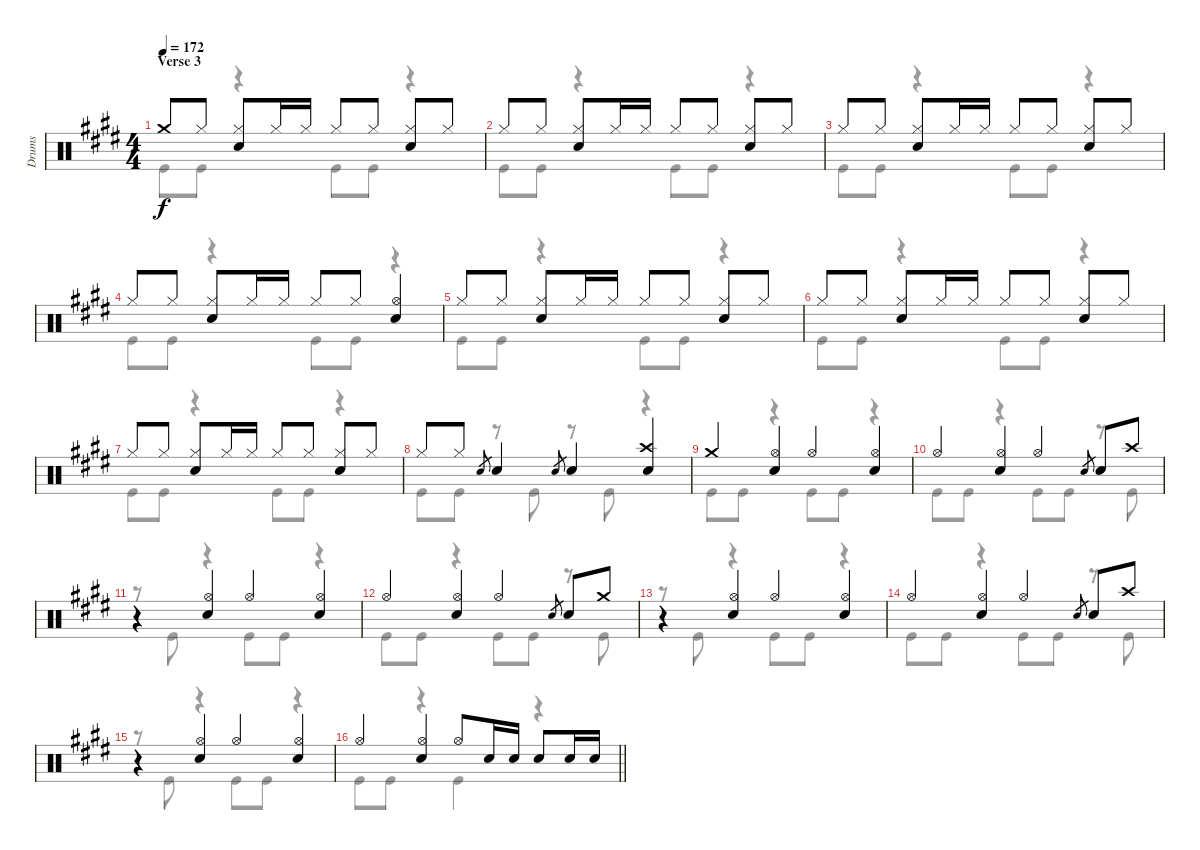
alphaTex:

\track ("Drums" "Drums") {instrument percussion}
\staff {score}
\articulation defaults
\voice
\ts (4 4)
\section ("" "Verse 3")
\tempo 172
\clef neutral
\ks e "Crash medium (hit)".8{dy f} "Hi-Hat (closed)".8
("Hi-Hat (closed)" "Electric Snare (hit)").8 "Hi-Hat (closed)".16 "Hi-Hat (closed)".16 "Hi-Hat (closed)".8 "Hi-Hat (closed)".8 ("Hi-Hat (closed)" "Electric Snare (hit)").8 "Hi-Hat (closed)".8 |
"Hi-Hat (closed)".8 "Hi-Hat (closed)".8 ("Hi-Hat (closed)" "Electric Snare (hit)").8 "Hi-Hat (closed)".16 "Hi-Hat (closed)".16 "Hi-Hat (closed)".8 "Hi-Hat (closed)".8 ("Hi-Hat (closed)" "Electric Snare (hit)").8 "Hi-Hat (closed)".8 |
"Hi-Hat (closed)".8 "Hi-Hat (closed)".8 ("Hi-Hat (closed)" "Electric Snare (hit)").8 "Hi-Hat (closed)".16 "Hi-Hat (closed)".16 "Hi-Hat (closed)".8 "Hi-Hat (closed)".8 ("Hi-Hat (closed)" "Electric Snare (hit)").8 "Hi-Hat (closed)".8 |
"Hi-Hat (closed)".8 "Hi-Hat (closed)".8 ("Hi-Hat (closed)" "Electric Snare (hit)").8 "Hi-Hat (closed)".16 "Hi-Hat (closed)".16 "Hi-Hat (closed)".8 "Hi-Hat (closed)".8 ("Hi-Hat (open)" "Electric Snare (hit)").4 |
"Hi-Hat (closed)".8 "Hi-Hat (closed)".8 ("Hi-Hat (closed)" "Electric Snare (hit)").8 "Hi-Hat (closed)".16 "Hi-Hat (closed)".16 "Hi-Hat (closed)".8 "Hi-Hat (closed)".8 ("Hi-Hat (closed)" "Electric Snare (hit)").8 "Hi-Hat (closed)".8 |
"Hi-Hat (closed)".8 "Hi-Hat (closed)".8 ("Hi-Hat (closed)" "Electric Snare (hit)").8 "Hi-Hat (closed)".16 "Hi-Hat (closed)".16 "Hi-Hat (closed)".8 "Hi-Hat (closed)".8 ("Hi-Hat (closed)" "Electric Snare (hit)").8 "Hi-Hat (closed)".8 |
"Hi-Hat (closed)".8 "Hi-Hat (closed)".8 ("Hi-Hat (closed)" "Electric Snare (hit)").8 "Hi-Hat (closed)".16 "Hi-Hat (closed)".16 "Hi-Hat (closed)".8 "Hi-Hat (closed)".8 ("Hi-Hat (closed)" "Electric Snare (hit)").8 "Hi-Hat (closed)".8 |
"Hi-Hat (closed)".8 "Hi-Hat (closed)".8 "Electric Snare (hit)".8{gr} "Electric Snare (hit)".4 "Electric Snare (hit)".8{gr} "Electric Snare (hit)".4 ("Crash high (hit)" "Electric Snare (hit)").4 |
"Crash medium (hit)".4 ("Hi-Hat (open)" "Electric Snare (hit)").4 "Hi-Hat (open)".4 ("Hi-Hat (open)" "Electric Snare (hit)").4 |
"Hi-Hat (open)".4 ("Hi-Hat (open)" "Electric Snare (hit)").4 "Hi-Hat (open)".4 "Electric Snare (hit)".8{gr} "Electric Snare (hit)".8 "Crash high (hit)".8 |
r.4 ("Hi-Hat (open)" "Electric Snare (hit)").4 "Hi-Hat (open)".4 ("Hi-Hat (open)" "Electric Snare (hit)").4 |
"Hi-Hat (open)".4 ("Hi-Hat (open)" "Electric Snare (hit)").4 "Hi-Hat (open)".4 "Electric Snare (hit)".8{gr} "Electric Snare (hit)".8 "Crash medium (hit)".8 |
r.4 ("Hi-Hat (open)" "Electric Snare (hit)").4 "Hi-Hat (open)".4 ("Hi-Hat (open)" "Electric Snare (hit)").4 |
"Hi-Hat (open)".4 ("Hi-Hat (open)" "Electric Snare (hit)").4 "Hi-Hat (open)".4 "Electric Snare (hit)".8{gr} "Electric Snare (hit)".8 "Crash high (hit)".8 |
r.4 ("Hi-Hat (open)" "Electric Snare (hit)").4 "Hi-Hat (open)".4 ("Hi-Hat (open)" "Electric Snare (hit)").4 |
\barLineRight lightlight "Hi-Hat (open)".4
("Hi-Hat (open)" "Electric Snare (hit)").4 "Hi-Hat (open)".8 "Electric Snare (hit)".16 "Electric Snare (hit)".16 "Electric Snare (hit)".8 "Electric Snare (hit)".16 "Electric Snare (hit)".16
\voice
\clef neutral
\ottava regular
\simile none
\ks e "Kick (hit)".8{dy f} "Kick (hit)".8
r.4 "Kick (hit)".8 "Kick (hit)".8 r.4 |
"Kick (hit)".8 "Kick (hit)".8 r.4 "Kick (hit)".8 "Kick (hit)".8 r.4 |
"Kick (hit)".8 "Kick (hit)".8 r.4 "Kick (hit)".8 "Kick (hit)".8 r.4 |
"Kick (hit)".8 "Kick (hit)".8 r.4 "Kick (hit)".8 "Kick (hit)".8 r.4 |
"Kick (hit)".8 "Kick (hit)".8 r.4 "Kick (hit)".8 "Kick (hit)".8 r.4 |
"Kick (hit)".8 "Kick (hit)".8 r.4 "Kick (hit)".8 "Kick (hit)".8 r.4 |
"Kick (hit)".8 "Kick (hit)".8 r.4 "Kick (hit)".8 "Kick (hit)".8 r.4 |
"Kick (hit)".8 "Kick (hit)".8 r.8 "Kick (hit)".8 r.8 "Kick (hit)".8 r.4 |
"Kick (hit)".8 "Kick (hit)".8 r.4 "Kick (hit)".8 "Kick (hit)".8 r.4 |
"Kick (hit)".8 "Kick (hit)".8 r.4 "Kick (hit)".8 "Kick (hit)".8 r.8 "Kick (hit)".8 |
r.8 "Kick (hit)".8 r.4 "Kick (hit)".8 "Kick (hit)".8 r.4 |
"Kick (hit)".8 "Kick (hit)".8 r.4 "Kick (hit)".8 "Kick (hit)".8 r.8 "Kick (hit)".8 |
r.8 "Kick (hit)".8 r.4 "Kick (hit)".8 "Kick (hit)".8 r.4 |
"Kick (hit)".8 "Kick (hit)".8 r.4 "Kick (hit)".8 "Kick (hit)".8 r.8 "Kick (hit)".8 |
r.8 "Kick (hit)".8 r.4 "Kick (hit)".8 "Kick (hit)".8 r.4 |
\barLineRight lightlight "Kick (hit)".8 "Kick (hit)".8
r.4 "Kick (hit)".4 r.4
